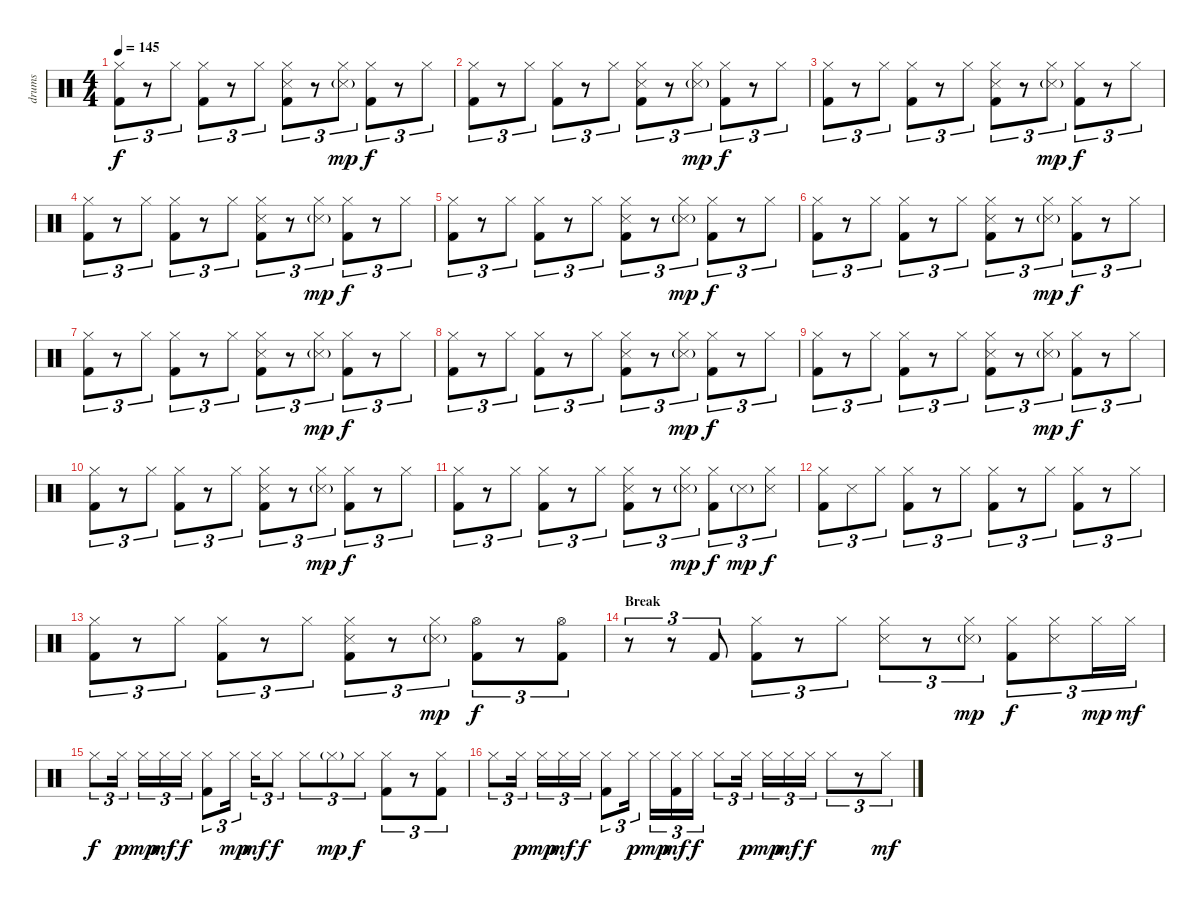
\track ("drums" "drums") {instrument percussion}
\staff {score}
\articulation defaults
\ts (4 4)
\tempo 145
\clef neutral
\ks c
("Hi-Hat (closed)" "Kick (hit) 2").8{tu (3 2) dy f} r.8{tu (3 2)} "Hi-Hat (closed)".8{tu (3 2)} ("Hi-Hat (closed)" "Kick (hit) 2").8{tu (3 2)} r.8{tu (3 2)} "Hi-Hat (closed)".8{tu (3 2)} ("Hi-Hat (closed)" "Snare (side stick) 3" "Kick (hit) 2").8{tu (3 2)} r.8{tu (3 2)} ("Hi-Hat (closed)" "Snare (side stick) 3"{g}).8{tu (3 2) dy mp} ("Hi-Hat (closed)" "Kick (hit) 2").8{tu (3 2) dy f} r.8{tu (3 2)} "Hi-Hat (closed)".8{tu (3 2)} |
("Hi-Hat (closed)" "Kick (hit) 2").8{tu (3 2)} r.8{tu (3 2)} "Hi-Hat (closed)".8{tu (3 2)} ("Hi-Hat (closed)" "Kick (hit) 2").8{tu (3 2)} r.8{tu (3 2)} "Hi-Hat (closed)".8{tu (3 2)} ("Hi-Hat (closed)" "Snare (side stick) 3" "Kick (hit) 2").8{tu (3 2)} r.8{tu (3 2)} ("Hi-Hat (closed)" "Snare (side stick) 3"{g}).8{tu (3 2) dy mp} ("Hi-Hat (closed)" "Kick (hit) 2").8{tu (3 2) dy f} r.8{tu (3 2)} "Hi-Hat (closed)".8{tu (3 2)} |
("Hi-Hat (closed)" "Kick (hit) 2").8{tu (3 2)} r.8{tu (3 2)} "Hi-Hat (closed)".8{tu (3 2)} ("Hi-Hat (closed)" "Kick (hit) 2").8{tu (3 2)} r.8{tu (3 2)} "Hi-Hat (closed)".8{tu (3 2)} ("Hi-Hat (closed)" "Snare (side stick) 3" "Kick (hit) 2").8{tu (3 2)} r.8{tu (3 2)} ("Hi-Hat (closed)" "Snare (side stick) 3"{g}).8{tu (3 2) dy mp} ("Hi-Hat (closed)" "Kick (hit) 2").8{tu (3 2) dy f} r.8{tu (3 2)} "Hi-Hat (closed)".8{tu (3 2)} |
("Hi-Hat (closed)" "Kick (hit) 2").8{tu (3 2)} r.8{tu (3 2)} "Hi-Hat (closed)".8{tu (3 2)} ("Hi-Hat (closed)" "Kick (hit) 2").8{tu (3 2)} r.8{tu (3 2)} "Hi-Hat (closed)".8{tu (3 2)} ("Hi-Hat (closed)" "Snare (side stick) 3" "Kick (hit) 2").8{tu (3 2)} r.8{tu (3 2)} ("Hi-Hat (closed)" "Snare (side stick) 3"{g}).8{tu (3 2) dy mp} ("Hi-Hat (closed)" "Kick (hit) 2").8{tu (3 2) dy f} r.8{tu (3 2)} "Hi-Hat (closed)".8{tu (3 2)} |
("Hi-Hat (closed)" "Kick (hit) 2").8{tu (3 2)} r.8{tu (3 2)} "Hi-Hat (closed)".8{tu (3 2)} ("Hi-Hat (closed)" "Kick (hit) 2").8{tu (3 2)} r.8{tu (3 2)} "Hi-Hat (closed)".8{tu (3 2)} ("Hi-Hat (closed)" "Snare (side stick) 3" "Kick (hit) 2").8{tu (3 2)} r.8{tu (3 2)} ("Hi-Hat (closed)" "Snare (side stick) 3"{g}).8{tu (3 2) dy mp} ("Hi-Hat (closed)" "Kick (hit) 2").8{tu (3 2) dy f} r.8{tu (3 2)} "Hi-Hat (closed)".8{tu (3 2)} |
("Hi-Hat (closed)" "Kick (hit) 2").8{tu (3 2)} r.8{tu (3 2)} "Hi-Hat (closed)".8{tu (3 2)} ("Hi-Hat (closed)" "Kick (hit) 2").8{tu (3 2)} r.8{tu (3 2)} "Hi-Hat (closed)".8{tu (3 2)} ("Hi-Hat (closed)" "Snare (side stick) 3" "Kick (hit) 2").8{tu (3 2)} r.8{tu (3 2)} ("Hi-Hat (closed)" "Snare (side stick) 3"{g}).8{tu (3 2) dy mp} ("Hi-Hat (closed)" "Kick (hit) 2").8{tu (3 2) dy f} r.8{tu (3 2)} "Hi-Hat (closed)".8{tu (3 2)} |
("Hi-Hat (closed)" "Kick (hit) 2").8{tu (3 2)} r.8{tu (3 2)} "Hi-Hat (closed)".8{tu (3 2)} ("Hi-Hat (closed)" "Kick (hit) 2").8{tu (3 2)} r.8{tu (3 2)} "Hi-Hat (closed)".8{tu (3 2)} ("Hi-Hat (closed)" "Snare (side stick) 3" "Kick (hit) 2").8{tu (3 2)} r.8{tu (3 2)} ("Hi-Hat (closed)" "Snare (side stick) 3"{g}).8{tu (3 2) dy mp} ("Hi-Hat (closed)" "Kick (hit) 2").8{tu (3 2) dy f} r.8{tu (3 2)} "Hi-Hat (closed)".8{tu (3 2)} |
("Hi-Hat (closed)" "Kick (hit) 2").8{tu (3 2)} r.8{tu (3 2)} "Hi-Hat (closed)".8{tu (3 2)} ("Hi-Hat (closed)" "Kick (hit) 2").8{tu (3 2)} r.8{tu (3 2)} "Hi-Hat (closed)".8{tu (3 2)} ("Hi-Hat (closed)" "Snare (side stick) 3" "Kick (hit) 2").8{tu (3 2)} r.8{tu (3 2)} ("Hi-Hat (closed)" "Snare (side stick) 3"{g}).8{tu (3 2) dy mp} ("Hi-Hat (closed)" "Kick (hit) 2").8{tu (3 2) dy f} r.8{tu (3 2)} "Hi-Hat (closed)".8{tu (3 2)} |
("Hi-Hat (closed)" "Kick (hit) 2").8{tu (3 2)} r.8{tu (3 2)} "Hi-Hat (closed)".8{tu (3 2)} ("Hi-Hat (closed)" "Kick (hit) 2").8{tu (3 2)} r.8{tu (3 2)} "Hi-Hat (closed)".8{tu (3 2)} ("Hi-Hat (closed)" "Snare (side stick) 3" "Kick (hit) 2").8{tu (3 2)} r.8{tu (3 2)} ("Hi-Hat (closed)" "Snare (side stick) 3"{g}).8{tu (3 2) dy mp} ("Hi-Hat (closed)" "Kick (hit) 2").8{tu (3 2) dy f} r.8{tu (3 2)} "Hi-Hat (closed)".8{tu (3 2)} |
("Hi-Hat (closed)" "Kick (hit) 2").8{tu (3 2)} r.8{tu (3 2)} "Hi-Hat (closed)".8{tu (3 2)} ("Hi-Hat (closed)" "Kick (hit) 2").8{tu (3 2)} r.8{tu (3 2)} "Hi-Hat (closed)".8{tu (3 2)} ("Hi-Hat (closed)" "Snare (side stick) 3" "Kick (hit) 2").8{tu (3 2)} r.8{tu (3 2)} ("Hi-Hat (closed)" "Snare (side stick) 3"{g}).8{tu (3 2) dy mp} ("Hi-Hat (closed)" "Kick (hit) 2").8{tu (3 2) dy f} r.8{tu (3 2)} "Hi-Hat (closed)".8{tu (3 2)} |
("Hi-Hat (closed)" "Kick (hit) 2").8{tu (3 2)} r.8{tu (3 2)} "Hi-Hat (closed)".8{tu (3 2)} ("Hi-Hat (closed)" "Kick (hit) 2").8{tu (3 2)} r.8{tu (3 2)} "Hi-Hat (closed)".8{tu (3 2)} ("Hi-Hat (closed)" "Snare (side stick) 3" "Kick (hit) 2").8{tu (3 2)} r.8{tu (3 2)} ("Hi-Hat (closed)" "Snare (side stick) 3"{g}).8{tu (3 2) dy mp} ("Hi-Hat (closed)" "Kick (hit) 2").8{tu (3 2) dy f} "Snare (side stick) 3"{g}.8{tu (3 2) dy mp} ("Hi-Hat (closed)" "Snare (side stick) 3").8{tu (3 2) dy f} |
("Hi-Hat (closed)" "Kick (hit) 2").8{tu (3 2)} "Snare (side stick) 3".8{tu (3 2)} "Hi-Hat (closed)".8{tu (3 2)} ("Hi-Hat (closed)" "Kick (hit) 2").8{tu (3 2)} r.8{tu (3 2)} "Hi-Hat (closed)".8{tu (3 2)} ("Hi-Hat (closed)" "Kick (hit) 2").8{tu (3 2)} r.8{tu (3 2)} "Hi-Hat (closed)".8{tu (3 2)} ("Hi-Hat (closed)" "Kick (hit) 2").8{tu (3 2)} r.8{tu (3 2)} "Hi-Hat (closed)".8{tu (3 2)} |
("Hi-Hat (closed)" "Kick (hit) 2").8{tu (3 2)} r.8{tu (3 2)} "Hi-Hat (closed)".8{tu (3 2)} ("Hi-Hat (closed)" "Kick (hit) 2").8{tu (3 2)} r.8{tu (3 2)} "Hi-Hat (closed)".8{tu (3 2)} ("Hi-Hat (closed)" "Snare (side stick) 3" "Kick (hit) 2").8{tu (3 2)} r.8{tu (3 2)} ("Hi-Hat (closed)" "Snare (side stick) 3"{g}).8{tu (3 2) dy mp} ("Hi-Hat (open)" "Kick (hit) 2").8{tu (3 2) dy f} r.8{tu (3 2)} ("Hi-Hat (open)" "Kick (hit) 2").8{tu (3 2)} |
\section ("" "Break")
r.8{tu (3 2)} r.8{tu (3 2)} "Kick (hit) 2".8{tu (3 2)} ("Hi-Hat (closed)" "Kick (hit) 2").8{tu (3 2)} r.8{tu (3 2)} "Hi-Hat (closed)".8{tu (3 2)} ("Hi-Hat (closed)" "Snare (side stick) 3").8{tu (3 2)} r.8{tu (3 2)} ("Hi-Hat (closed)" "Snare (side stick) 3"{g}).8{tu (3 2) dy mp} ("Hi-Hat (closed)" "Kick (hit) 2").8{tu (3 2) dy f} ("Hi-Hat (closed)" "Snare (side stick) 3").8{tu (3 2)} "Hi-Hat (closed)".16{tu (3 2) dy mp} "Hi-Hat (closed)".16{tu (3 2) dy mf} |
"Hi-Hat (closed)".8{tu (3 2) dy f} "Hi-Hat (closed)".16{tu (3 2) dy p} "Hi-Hat (closed)".16{tu (3 2) dy mp} "Hi-Hat (closed)".16{tu (3 2) dy mf} "Hi-Hat (closed)".16{tu (3 2) dy f} ("Hi-Hat (closed)" "Kick (hit) 2").8{tu (3 2)} "Hi-Hat (closed)".16{tu (3 2) dy mp} "Hi-Hat (closed)".16{tu (3 2) dy mf} "Hi-Hat (closed)".8{tu (3 2) dy f} "Hi-Hat (closed)".8{tu (3 2)} "Hi-Hat (closed)"{g}.8{tu (3 2) dy mp} "Hi-Hat (closed)".8{tu (3 2) dy f} ("Hi-Hat (closed)" "Kick (hit) 2").8{tu (3 2)} r.8{tu (3 2)} ("Hi-Hat (closed)" "Kick (hit) 2").8{tu (3 2)} |
"Hi-Hat (closed)".8{tu (3 2)} "Hi-Hat (closed)".16{tu (3 2) dy p} "Hi-Hat (closed)".16{tu (3 2) dy mp} "Hi-Hat (closed)".16{tu (3 2) dy mf} "Hi-Hat (closed)".16{tu (3 2) dy f} ("Hi-Hat (closed)" "Kick (hit) 2").8{tu (3 2)} "Hi-Hat (closed)".16{tu (3 2) dy p} "Hi-Hat (closed)".16{tu (3 2) dy mp} ("Hi-Hat (closed)" "Kick (hit) 2").16{tu (3 2) dy mf} "Hi-Hat (closed)".16{tu (3 2) dy f} "Hi-Hat (closed)".8{tu (3 2)} "Hi-Hat (closed)".16{tu (3 2) dy p} "Hi-Hat (closed)".16{tu (3 2) dy mp} "Hi-Hat (closed)".16{tu (3 2) dy mf} "Hi-Hat (closed)".16{tu (3 2) dy f} "Hi-Hat (closed)".8{tu (3 2)} r.8{tu (3 2)} "Hi-Hat (closed)".8{tu (3 2) dy mf}
